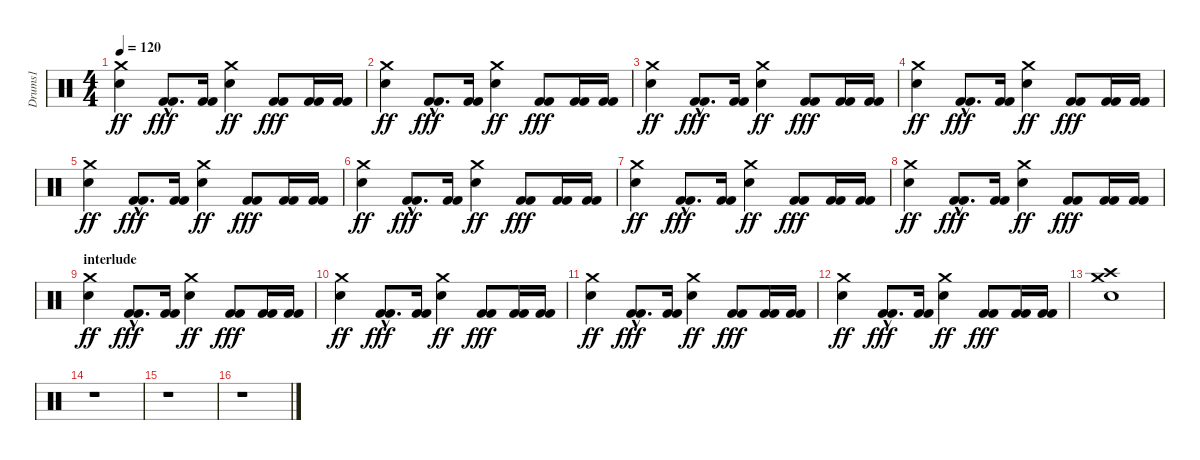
\track ("Drums1" "Drums1") {instrument percussion}
\staff {score}
\articulation defaults
\ts (4 4)
\tempo 120
\clef neutral
\ks c
("Crash medium (hit)" "Snare (hit) 2").4{dy ff} ("Kick (hit) 2"{hac} "Kick (hit) 2"{hac}).8{d dy fff} ("Kick (hit) 2" "Kick (hit) 2").16 ("Crash medium (hit)" "Snare (hit) 2").4{dy ff} ("Kick (hit) 2" "Kick (hit) 2").8{dy fff} ("Kick (hit) 2" "Kick (hit) 2").16 ("Kick (hit) 2" "Kick (hit) 2").16 |
("Crash medium (hit)" "Snare (hit) 2").4{dy ff} ("Kick (hit) 2"{hac} "Kick (hit) 2"{hac}).8{d dy fff} ("Kick (hit) 2" "Kick (hit) 2").16 ("Crash medium (hit)" "Snare (hit) 2").4{dy ff} ("Kick (hit) 2" "Kick (hit) 2").8{dy fff} ("Kick (hit) 2" "Kick (hit) 2").16 ("Kick (hit) 2" "Kick (hit) 2").16 |
("Crash medium (hit)" "Snare (hit) 2").4{dy ff} ("Kick (hit) 2"{hac} "Kick (hit) 2"{hac}).8{d dy fff} ("Kick (hit) 2" "Kick (hit) 2").16 ("Crash medium (hit)" "Snare (hit) 2").4{dy ff} ("Kick (hit) 2" "Kick (hit) 2").8{dy fff} ("Kick (hit) 2" "Kick (hit) 2").16 ("Kick (hit) 2" "Kick (hit) 2").16 |
("Crash medium (hit)" "Snare (hit) 2").4{dy ff} ("Kick (hit) 2"{hac} "Kick (hit) 2"{hac}).8{d dy fff} ("Kick (hit) 2" "Kick (hit) 2").16 ("Crash medium (hit)" "Snare (hit) 2").4{dy ff} ("Kick (hit) 2" "Kick (hit) 2").8{dy fff} ("Kick (hit) 2" "Kick (hit) 2").16 ("Kick (hit) 2" "Kick (hit) 2").16 |
("Crash medium (hit)" "Snare (hit) 2").4{dy ff} ("Kick (hit) 2"{hac} "Kick (hit) 2"{hac}).8{d dy fff} ("Kick (hit) 2" "Kick (hit) 2").16 ("Crash medium (hit)" "Snare (hit) 2").4{dy ff} ("Kick (hit) 2" "Kick (hit) 2").8{dy fff} ("Kick (hit) 2" "Kick (hit) 2").16 ("Kick (hit) 2" "Kick (hit) 2").16 |
("Crash medium (hit)" "Snare (hit) 2").4{dy ff} ("Kick (hit) 2"{hac} "Kick (hit) 2"{hac}).8{d dy fff} ("Kick (hit) 2" "Kick (hit) 2").16 ("Crash medium (hit)" "Snare (hit) 2").4{dy ff} ("Kick (hit) 2" "Kick (hit) 2").8{dy fff} ("Kick (hit) 2" "Kick (hit) 2").16 ("Kick (hit) 2" "Kick (hit) 2").16 |
("Crash medium (hit)" "Snare (hit) 2").4{dy ff} ("Kick (hit) 2"{hac} "Kick (hit) 2"{hac}).8{d dy fff} ("Kick (hit) 2" "Kick (hit) 2").16 ("Crash medium (hit)" "Snare (hit) 2").4{dy ff} ("Kick (hit) 2" "Kick (hit) 2").8{dy fff} ("Kick (hit) 2" "Kick (hit) 2").16 ("Kick (hit) 2" "Kick (hit) 2").16 |
("Crash medium (hit)" "Snare (hit) 2").4{dy ff} ("Kick (hit) 2"{hac} "Kick (hit) 2"{hac}).8{d dy fff} ("Kick (hit) 2" "Kick (hit) 2").16 ("Crash medium (hit)" "Snare (hit) 2").4{dy ff} ("Kick (hit) 2" "Kick (hit) 2").8{dy fff} ("Kick (hit) 2" "Kick (hit) 2").16 ("Kick (hit) 2" "Kick (hit) 2").16 |
\section ("" "interlude")
("Crash medium (hit)" "Snare (hit) 2").4{dy ff} ("Kick (hit) 2"{hac} "Kick (hit) 2"{hac}).8{d dy fff} ("Kick (hit) 2" "Kick (hit) 2").16 ("Crash medium (hit)" "Snare (hit) 2").4{dy ff} ("Kick (hit) 2" "Kick (hit) 2").8{dy fff} ("Kick (hit) 2" "Kick (hit) 2").16 ("Kick (hit) 2" "Kick (hit) 2").16 |
("Crash medium (hit)" "Snare (hit) 2").4{dy ff} ("Kick (hit) 2"{hac} "Kick (hit) 2"{hac}).8{d dy fff} ("Kick (hit) 2" "Kick (hit) 2").16 ("Crash medium (hit)" "Snare (hit) 2").4{dy ff} ("Kick (hit) 2" "Kick (hit) 2").8{dy fff} ("Kick (hit) 2" "Kick (hit) 2").16 ("Kick (hit) 2" "Kick (hit) 2").16 |
("Crash medium (hit)" "Snare (hit) 2").4{dy ff} ("Kick (hit) 2"{hac} "Kick (hit) 2"{hac}).8{d dy fff} ("Kick (hit) 2" "Kick (hit) 2").16 ("Crash medium (hit)" "Snare (hit) 2").4{dy ff} ("Kick (hit) 2" "Kick (hit) 2").8{dy fff} ("Kick (hit) 2" "Kick (hit) 2").16 ("Kick (hit) 2" "Kick (hit) 2").16 |
("Crash medium (hit)" "Snare (hit) 2").4{dy ff} ("Kick (hit) 2"{hac} "Kick (hit) 2"{hac}).8{d dy fff} ("Kick (hit) 2" "Kick (hit) 2").16 ("Crash medium (hit)" "Snare (hit) 2").4{dy ff} ("Kick (hit) 2" "Kick (hit) 2").8{dy fff} ("Kick (hit) 2" "Kick (hit) 2").16 ("Kick (hit) 2" "Kick (hit) 2").16 |
("Crash medium (hit)" "Electric Snare (hit)" "Crash high (hit)").1 |
r.1 |
r.1 |
r.1
